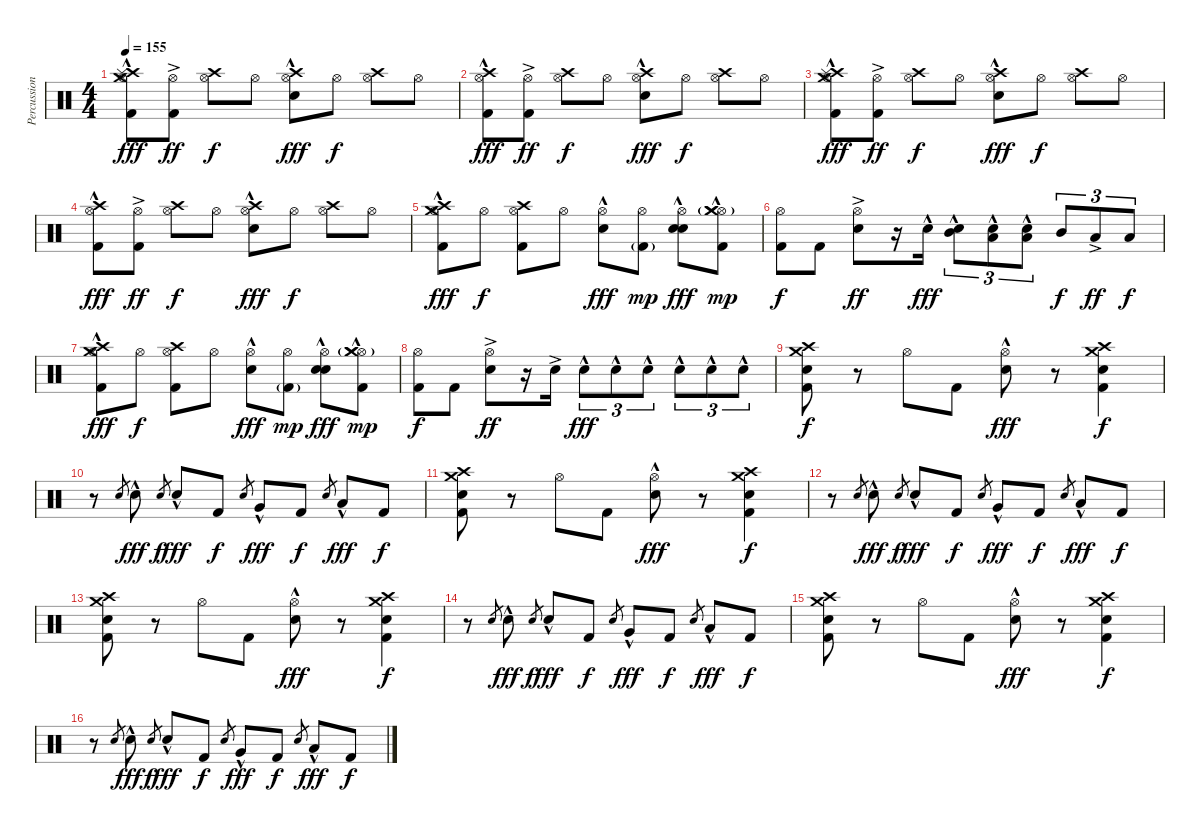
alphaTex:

\track ("Percussion" "Percussion") {instrument percussion}
\staff {score}
\articulation defaults
\ts (4 4)
\tempo 155
\clef neutral
\ks c
("Hi-Hat (open)" "Crash high (hit)" "Crash medium (hit)" "Splash (hit)" "Kick (hit) 2"{hac}).8{dy fff} ("Hi-Hat (open)" "Kick (hit) 2"{ac}).8{dy ff} ("Hi-Hat (open)" "Crash high (hit)").8{dy f} "Hi-Hat (open)".8 ("Hi-Hat (open)" "Crash high (hit)" "Electric Snare (hit)"{hac}).8{dy fff} "Hi-Hat (open)".8{dy f} ("Hi-Hat (open)" "Crash high (hit)").8 "Hi-Hat (open)".8 |
("Hi-Hat (open)" "Crash high (hit)" "Kick (hit) 2"{hac}).8{dy fff} ("Hi-Hat (open)" "Kick (hit) 2"{ac}).8{dy ff} ("Hi-Hat (open)" "Crash high (hit)").8{dy f} "Hi-Hat (open)".8 ("Hi-Hat (open)" "Crash high (hit)" "Electric Snare (hit)"{hac}).8{dy fff} "Hi-Hat (open)".8{dy f} ("Hi-Hat (open)" "Crash high (hit)").8 "Hi-Hat (open)".8 |
("Hi-Hat (open)" "Crash high (hit)" "Crash medium (hit)" "Splash (hit)" "Kick (hit) 2"{hac}).8{dy fff} ("Hi-Hat (open)" "Kick (hit) 2"{ac}).8{dy ff} ("Hi-Hat (open)" "Crash high (hit)").8{dy f} "Hi-Hat (open)".8 ("Hi-Hat (open)" "Crash high (hit)" "Electric Snare (hit)"{hac}).8{dy fff} "Hi-Hat (open)".8{dy f} ("Hi-Hat (open)" "Crash high (hit)").8 "Hi-Hat (open)".8 |
("Hi-Hat (open)" "Crash high (hit)" "Kick (hit) 2"{hac}).8{dy fff} ("Hi-Hat (open)" "Kick (hit) 2"{ac}).8{dy ff} ("Hi-Hat (open)" "Crash high (hit)").8{dy f} "Hi-Hat (open)".8 ("Hi-Hat (open)" "Crash high (hit)" "Electric Snare (hit)"{hac}).8{dy fff} "Hi-Hat (open)".8{dy f} ("Hi-Hat (open)" "Crash high (hit)").8 "Hi-Hat (open)".8 |
("Hi-Hat (open)" "Crash high (hit)"{hac} "Crash medium (hit)"{hac} "Kick (hit) 2"{hac}).8{dy fff} "Hi-Hat (open)".8{dy f} ("Hi-Hat (open)" "Crash high (hit)" "Kick (hit) 2").8 "Hi-Hat (open)".8 ("Hi-Hat (open)" "Electric Snare (hit)"{hac}).8{dy fff} ("Hi-Hat (open)" "Kick (hit) 2"{g}).8{dy mp} ("Hi-Hat (open)" "Snare (hit) 2"{hac} "Electric Snare (hit)"{hac}).8{dy fff} ("Hi-Hat (open)" "Crash medium (hit)"{hac} "Crash medium (hit)"{g} "Kick (hit) 2").8{dy mp} |
("Hi-Hat (open)" "Kick (hit) 2").8{dy f} "Kick (hit) 2".8 ("Hi-Hat (open)" "Electric Snare (hit)"{ac}).8{dy ff} r.16 "Electric Snare (hit)"{hac}.16{dy fff} ("Electric Snare (hit)"{hac} "Mid Tom (hit)"{hac}).8{tu (3 2)} ("Electric Snare (hit)" "Low Tom (hit)"{hac}).8{tu (3 2)} ("Electric Snare (hit)" "Low Floor Tom (hit)"{hac}).8{tu (3 2)} "Mid Tom (hit)".8{tu (3 2) dy f} "Low Tom (hit)"{ac}.8{tu (3 2) dy ff} "Low Floor Tom (hit)".8{tu (3 2) dy f} |
("Hi-Hat (open)" "Crash high (hit)"{hac} "Crash medium (hit)"{hac} "Kick (hit) 2"{hac}).8{dy fff} "Hi-Hat (open)".8{dy f} ("Hi-Hat (open)" "Crash high (hit)" "Kick (hit) 2").8 "Hi-Hat (open)".8 ("Hi-Hat (open)" "Electric Snare (hit)"{hac}).8{dy fff} ("Hi-Hat (open)" "Kick (hit) 2"{g}).8{dy mp} ("Hi-Hat (open)" "Snare (hit) 2"{hac} "Electric Snare (hit)"{hac}).8{dy fff} ("Hi-Hat (open)" "Crash medium (hit)"{hac} "Crash medium (hit)"{g} "Kick (hit) 2").8{dy mp} |
("Hi-Hat (open)" "Kick (hit) 2").8{dy f} "Kick (hit) 2".8 ("Hi-Hat (open)" "Electric Snare (hit)"{ac}).8{dy ff} r.16 "Electric Snare (hit)"{ac}.16 "Electric Snare (hit)"{hac}.8{tu (3 2) dy fff} "Electric Snare (hit)"{hac}.8{tu (3 2)} "Electric Snare (hit)"{hac}.8{tu (3 2)} "Electric Snare (hit)"{hac}.8{tu (3 2)} "Electric Snare (hit)"{hac}.8{tu (3 2)} "Electric Snare (hit)"{hac}.8{tu (3 2)} |
("Crash high (hit)" "Crash medium (hit)" "Electric Snare (hit)" "Kick (hit) 2").8{dy f} r.8 "Hi-Hat (open)".8 "Kick (hit) 2".8 ("Hi-Hat (open)" "Electric Snare (hit)"{hac}).8{dy fff} r.8 ("Crash high (hit)" "Crash medium (hit)" "Electric Snare (hit)" "Kick (hit) 2").4{dy f} |
r.8 "Electric Snare (hit)".8{gr} "Electric Snare (hit)"{hac}.8{dy fff} "Electric Snare (hit)".8{gr dy f} "Electric Snare (hit)"{hac}.8{dy fff} "Kick (hit) 2".8{dy f} "Electric Snare (hit)"{x}.8{gr} "Very Low Tom (hit)"{hac}.8{dy fff} "Kick (hit) 2".8{dy f} "Electric Snare (hit)"{x}.8{gr} "Low Floor Tom (hit)"{hac}.8{dy fff} "Kick (hit) 2".8{dy f} |
("Crash high (hit)" "Crash medium (hit)" "Electric Snare (hit)" "Kick (hit) 2").8 r.8 "Hi-Hat (open)".8 "Kick (hit) 2".8 ("Hi-Hat (open)" "Electric Snare (hit)"{hac}).8{dy fff} r.8 ("Crash high (hit)" "Crash medium (hit)" "Electric Snare (hit)" "Kick (hit) 2").4{dy f} |
r.8 "Electric Snare (hit)".8{gr} "Electric Snare (hit)"{hac}.8{dy fff} "Electric Snare (hit)".8{gr dy f} "Electric Snare (hit)"{hac}.8{dy fff} "Kick (hit) 2".8{dy f} "Electric Snare (hit)"{x}.8{gr} "Very Low Tom (hit)"{hac}.8{dy fff} "Kick (hit) 2".8{dy f} "Electric Snare (hit)"{x}.8{gr} "Low Floor Tom (hit)"{hac}.8{dy fff} "Kick (hit) 2".8{dy f} |
("Crash high (hit)" "Crash medium (hit)" "Electric Snare (hit)" "Kick (hit) 2").8 r.8 "Hi-Hat (open)".8 "Kick (hit) 2".8 ("Hi-Hat (open)" "Electric Snare (hit)"{hac}).8{dy fff} r.8 ("Crash high (hit)" "Crash medium (hit)" "Electric Snare (hit)" "Kick (hit) 2").4{dy f} |
r.8 "Electric Snare (hit)".8{gr} "Electric Snare (hit)"{hac}.8{dy fff} "Electric Snare (hit)".8{gr dy f} "Electric Snare (hit)"{hac}.8{dy fff} "Kick (hit) 2".8{dy f} "Electric Snare (hit)"{x}.8{gr} "Very Low Tom (hit)"{hac}.8{dy fff} "Kick (hit) 2".8{dy f} "Electric Snare (hit)"{x}.8{gr} "Low Floor Tom (hit)"{hac}.8{dy fff} "Kick (hit) 2".8{dy f} |
("Crash high (hit)" "Crash medium (hit)" "Electric Snare (hit)" "Kick (hit) 2").8 r.8 "Hi-Hat (open)".8 "Kick (hit) 2".8 ("Hi-Hat (open)" "Electric Snare (hit)"{hac}).8{dy fff} r.8 ("Crash high (hit)" "Crash medium (hit)" "Electric Snare (hit)" "Kick (hit) 2").4{dy f} |
r.8 "Electric Snare (hit)".8{gr} "Electric Snare (hit)"{hac}.8{dy fff} "Electric Snare (hit)".8{gr dy f} "Electric Snare (hit)"{hac}.8{dy fff} "Kick (hit) 2".8{dy f} "Electric Snare (hit)"{x}.8{gr} "Very Low Tom (hit)"{hac}.8{dy fff} "Kick (hit) 2".8{dy f} "Electric Snare (hit)"{x}.8{gr} "Low Floor Tom (hit)"{hac}.8{dy fff} "Kick (hit) 2".8{dy f}
